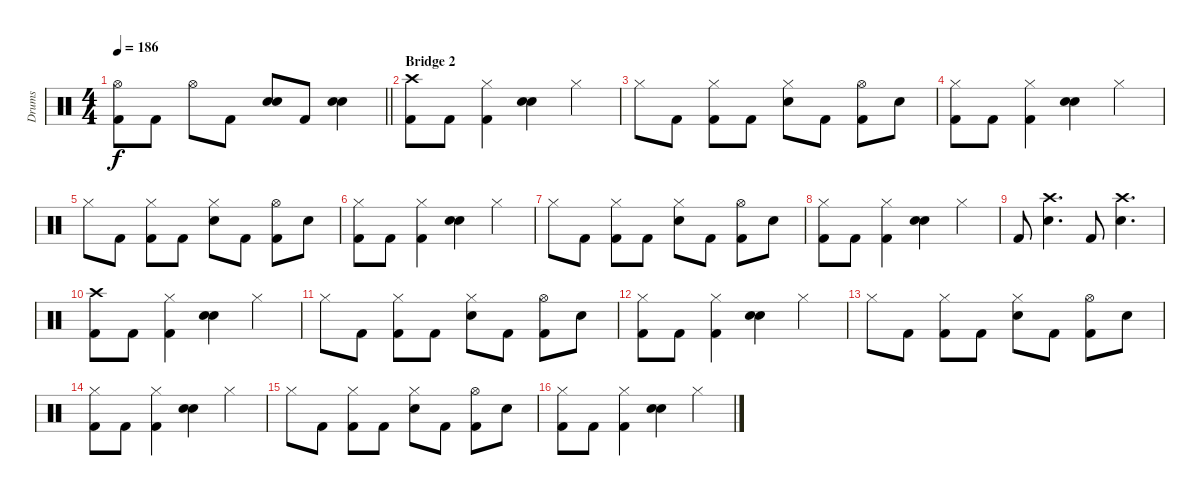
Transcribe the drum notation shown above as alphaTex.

\track ("Drums" "Drums") {instrument percussion}
\staff {score}
\articulation defaults
\ts (4 4)
\tempo 186
\clef neutral
\barLineRight lightlight
\ks c
("Hi-Hat (open)" "Kick (hit) 2").8{dy f} "Kick (hit) 2".8 "Hi-Hat (open)".8 "Kick (hit) 2".8 ("Snare (hit) 2" "Snare (hit) 2").8 "Kick (hit) 2".8 ("Snare (hit) 2" "Snare (hit) 2").4 |
\section ("" "Bridge 2")
("Crash high (hit)" "Kick (hit) 2").8 "Kick (hit) 2".8 ("Hi-Hat (closed)" "Kick (hit) 2").4 ("Snare (hit) 2" "Snare (hit) 2").4 "Hi-Hat (closed)".4 |
"Hi-Hat (closed)".8 "Kick (hit) 2".8 ("Hi-Hat (closed)" "Kick (hit) 2").8 "Kick (hit) 2".8 ("Hi-Hat (closed)" "Snare (hit) 2").8 "Kick (hit) 2".8 ("Hi-Hat (open)" "Kick (hit) 2").8 "Snare (hit) 2".8 |
("Hi-Hat (closed)" "Kick (hit) 2").8 "Kick (hit) 2".8 ("Hi-Hat (closed)" "Kick (hit) 2").4 ("Snare (hit) 2" "Snare (hit) 2").4 "Hi-Hat (closed)".4 |
"Hi-Hat (closed)".8 "Kick (hit) 2".8 ("Hi-Hat (closed)" "Kick (hit) 2").8 "Kick (hit) 2".8 ("Hi-Hat (closed)" "Snare (hit) 2").8 "Kick (hit) 2".8 ("Hi-Hat (open)" "Kick (hit) 2").8 "Snare (hit) 2".8 |
("Hi-Hat (closed)" "Kick (hit) 2").8 "Kick (hit) 2".8 ("Hi-Hat (closed)" "Kick (hit) 2").4 ("Snare (hit) 2" "Snare (hit) 2").4 "Hi-Hat (closed)".4 |
"Hi-Hat (closed)".8 "Kick (hit) 2".8 ("Hi-Hat (closed)" "Kick (hit) 2").8 "Kick (hit) 2".8 ("Hi-Hat (closed)" "Snare (hit) 2").8 "Kick (hit) 2".8 ("Hi-Hat (open)" "Kick (hit) 2").8 "Snare (hit) 2".8 |
("Hi-Hat (closed)" "Kick (hit) 2").8 "Kick (hit) 2".8 ("Hi-Hat (closed)" "Kick (hit) 2").4 ("Snare (hit) 2" "Snare (hit) 2").4 "Hi-Hat (closed)".4 |
"Kick (hit) 2".8 ("Crash high (hit)" "Snare (hit) 2").4{d} "Kick (hit) 2".8 ("Crash high (hit)" "Snare (hit) 2").4{d} |
("Crash high (hit)" "Kick (hit) 2").8 "Kick (hit) 2".8 ("Hi-Hat (closed)" "Kick (hit) 2").4 ("Snare (hit) 2" "Snare (hit) 2").4 "Hi-Hat (closed)".4 |
"Hi-Hat (closed)".8 "Kick (hit) 2".8 ("Hi-Hat (closed)" "Kick (hit) 2").8 "Kick (hit) 2".8 ("Hi-Hat (closed)" "Snare (hit) 2").8 "Kick (hit) 2".8 ("Hi-Hat (open)" "Kick (hit) 2").8 "Snare (hit) 2".8 |
("Hi-Hat (closed)" "Kick (hit) 2").8 "Kick (hit) 2".8 ("Hi-Hat (closed)" "Kick (hit) 2").4 ("Snare (hit) 2" "Snare (hit) 2").4 "Hi-Hat (closed)".4 |
"Hi-Hat (closed)".8 "Kick (hit) 2".8 ("Hi-Hat (closed)" "Kick (hit) 2").8 "Kick (hit) 2".8 ("Hi-Hat (closed)" "Snare (hit) 2").8 "Kick (hit) 2".8 ("Hi-Hat (open)" "Kick (hit) 2").8 "Snare (hit) 2".8 |
("Hi-Hat (closed)" "Kick (hit) 2").8 "Kick (hit) 2".8 ("Hi-Hat (closed)" "Kick (hit) 2").4 ("Snare (hit) 2" "Snare (hit) 2").4 "Hi-Hat (closed)".4 |
"Hi-Hat (closed)".8 "Kick (hit) 2".8 ("Hi-Hat (closed)" "Kick (hit) 2").8 "Kick (hit) 2".8 ("Hi-Hat (closed)" "Snare (hit) 2").8 "Kick (hit) 2".8 ("Hi-Hat (open)" "Kick (hit) 2").8 "Snare (hit) 2".8 |
("Hi-Hat (closed)" "Kick (hit) 2").8 "Kick (hit) 2".8 ("Hi-Hat (closed)" "Kick (hit) 2").4 ("Snare (hit) 2" "Snare (hit) 2").4 "Hi-Hat (closed)".4
